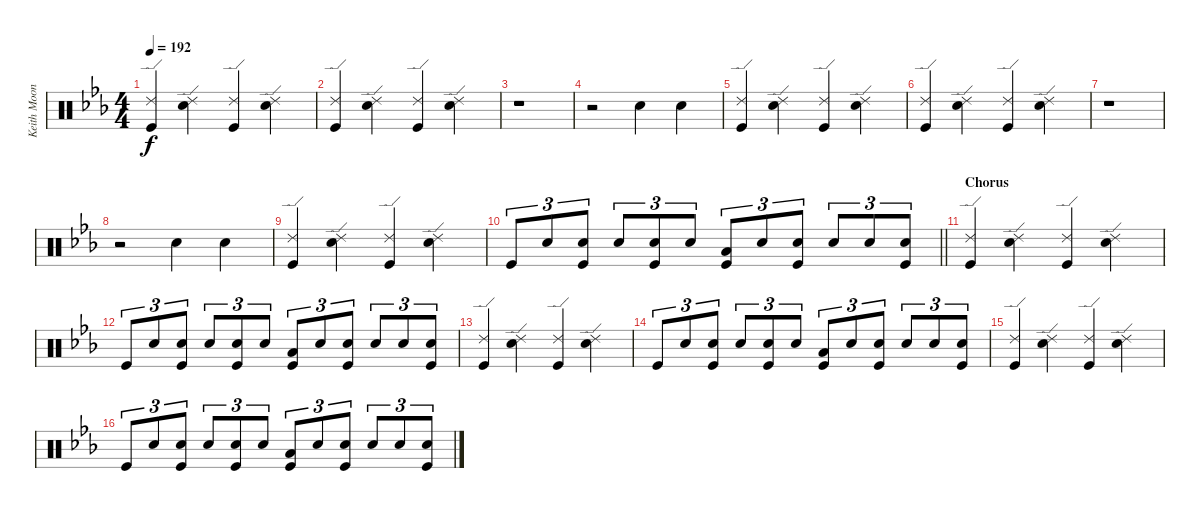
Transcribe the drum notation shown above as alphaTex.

\track ("Keith Moon - Drums" "Keith Moon") {instrument percussion}
\staff {score}
\articulation defaults
\ts (4 4)
\tempo 192
\clef neutral
\ks eb
("Ride (edge) 2" "Kick (hit)").4{dy f} ("Ride (edge) 2" "Electric Snare (hit)").4 ("Ride (edge) 2" "Kick (hit)").4 ("Ride (edge) 2" "Electric Snare (hit)").4 |
("Ride (edge) 2" "Kick (hit)").4 ("Ride (edge) 2" "Electric Snare (hit)").4 ("Ride (edge) 2" "Kick (hit)").4 ("Ride (edge) 2" "Electric Snare (hit)").4 |
r.1 |
r.2 "Electric Snare (hit)".4 "Electric Snare (hit)".4 |
("Ride (edge) 2" "Kick (hit)").4 ("Ride (edge) 2" "Electric Snare (hit)").4 ("Ride (edge) 2" "Kick (hit)").4 ("Ride (edge) 2" "Electric Snare (hit)").4 |
("Ride (edge) 2" "Kick (hit)").4 ("Ride (edge) 2" "Electric Snare (hit)").4 ("Ride (edge) 2" "Kick (hit)").4 ("Ride (edge) 2" "Electric Snare (hit)").4 |
r.1 |
r.2 "Electric Snare (hit)".4 "Electric Snare (hit)".4 |
("Ride (edge) 2" "Kick (hit)").4 ("Ride (edge) 2" "Electric Snare (hit)").4 ("Ride (edge) 2" "Kick (hit)").4 ("Ride (edge) 2" "Electric Snare (hit)").4 |
\barLineRight lightlight "Kick (hit)".8{tu (3 2)} "Electric Snare (hit)".8{tu (3 2)}
("Electric Snare (hit)" "Kick (hit)").8{tu (3 2)} "Electric Snare (hit)".8{tu (3 2)} ("Electric Snare (hit)" "Kick (hit)").8{tu (3 2)} "Electric Snare (hit)".8{tu (3 2)} ("Low Floor Tom (hit)" "Kick (hit)").8{tu (3 2)} "Electric Snare (hit)".8{tu (3 2)} ("Electric Snare (hit)" "Kick (hit)").8{tu (3 2)} "Electric Snare (hit)".8{tu (3 2)} "Electric Snare (hit)".8{tu (3 2)} ("Electric Snare (hit)" "Kick (hit)").8{tu (3 2)} |
\section ("" "Chorus")
("Ride (edge) 2" "Kick (hit)").4 ("Ride (edge) 2" "Electric Snare (hit)").4 ("Ride (edge) 2" "Kick (hit)").4 ("Ride (edge) 2" "Electric Snare (hit)").4 |
"Kick (hit)".8{tu (3 2)} "Electric Snare (hit)".8{tu (3 2)} ("Electric Snare (hit)" "Kick (hit)").8{tu (3 2)} "Electric Snare (hit)".8{tu (3 2)} ("Electric Snare (hit)" "Kick (hit)").8{tu (3 2)} "Electric Snare (hit)".8{tu (3 2)} ("Low Floor Tom (hit)" "Kick (hit)").8{tu (3 2)} "Electric Snare (hit)".8{tu (3 2)} ("Electric Snare (hit)" "Kick (hit)").8{tu (3 2)} "Electric Snare (hit)".8{tu (3 2)} "Electric Snare (hit)".8{tu (3 2)} ("Electric Snare (hit)" "Kick (hit)").8{tu (3 2)} |
("Ride (edge) 2" "Kick (hit)").4 ("Ride (edge) 2" "Electric Snare (hit)").4 ("Ride (edge) 2" "Kick (hit)").4 ("Ride (edge) 2" "Electric Snare (hit)").4 |
"Kick (hit)".8{tu (3 2)} "Electric Snare (hit)".8{tu (3 2)} ("Electric Snare (hit)" "Kick (hit)").8{tu (3 2)} "Electric Snare (hit)".8{tu (3 2)} ("Electric Snare (hit)" "Kick (hit)").8{tu (3 2)} "Electric Snare (hit)".8{tu (3 2)} ("Low Floor Tom (hit)" "Kick (hit)").8{tu (3 2)} "Electric Snare (hit)".8{tu (3 2)} ("Electric Snare (hit)" "Kick (hit)").8{tu (3 2)} "Electric Snare (hit)".8{tu (3 2)} "Electric Snare (hit)".8{tu (3 2)} ("Electric Snare (hit)" "Kick (hit)").8{tu (3 2)} |
("Ride (edge) 2" "Kick (hit)").4 ("Ride (edge) 2" "Electric Snare (hit)").4 ("Ride (edge) 2" "Kick (hit)").4 ("Ride (edge) 2" "Electric Snare (hit)").4 |
"Kick (hit)".8{tu (3 2)} "Electric Snare (hit)".8{tu (3 2)} ("Electric Snare (hit)" "Kick (hit)").8{tu (3 2)} "Electric Snare (hit)".8{tu (3 2)} ("Electric Snare (hit)" "Kick (hit)").8{tu (3 2)} "Electric Snare (hit)".8{tu (3 2)} ("Low Floor Tom (hit)" "Kick (hit)").8{tu (3 2)} "Electric Snare (hit)".8{tu (3 2)} ("Electric Snare (hit)" "Kick (hit)").8{tu (3 2)} "Electric Snare (hit)".8{tu (3 2)} "Electric Snare (hit)".8{tu (3 2)} ("Electric Snare (hit)" "Kick (hit)").8{tu (3 2)}
